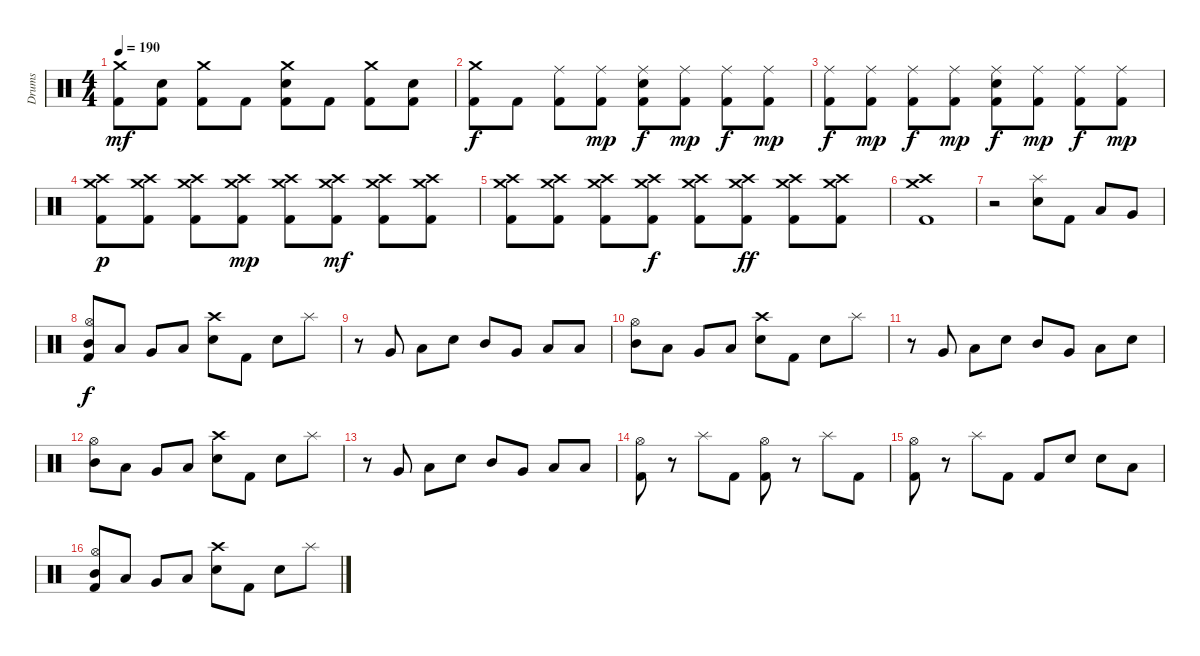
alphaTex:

\track ("Drums" "Drums") {instrument percussion}
\staff {score}
\articulation defaults
\ts (4 4)
\tempo 190
\clef neutral
\ks c
("Crash medium (hit)" "Kick (hit) 2").8{dy mf} ("Electric Snare (hit)" "Kick (hit) 2").8 ("Crash medium (hit)" "Kick (hit) 2").8 "Kick (hit) 2".8 ("Crash medium (hit)" "Electric Snare (hit)" "Kick (hit) 2").8 "Kick (hit) 2".8 ("Crash medium (hit)" "Kick (hit) 2").8 ("Electric Snare (hit)" "Kick (hit) 2").8 |
("Crash medium (hit)" "Kick (hit) 2").8{dy f} "Kick (hit) 2".8 ("Ride (middle)" "Kick (hit) 2").8 ("Ride (middle)" "Kick (hit) 2").8{dy mp} ("Ride (middle)" "Electric Snare (hit)" "Kick (hit) 2").8{dy f} ("Ride (middle)" "Kick (hit) 2").8{dy mp} ("Ride (middle)" "Kick (hit) 2").8{dy f} ("Ride (middle)" "Kick (hit) 2").8{dy mp} |
("Ride (middle)" "Kick (hit) 2").8{dy f} ("Ride (middle)" "Kick (hit) 2").8{dy mp} ("Ride (middle)" "Kick (hit) 2").8{dy f} ("Ride (middle)" "Kick (hit) 2").8{dy mp} ("Ride (middle)" "Electric Snare (hit)" "Kick (hit) 2").8{dy f} ("Ride (middle)" "Kick (hit) 2").8{dy mp} ("Ride (middle)" "Kick (hit) 2").8{dy f} ("Ride (middle)" "Kick (hit) 2").8{dy mp} |
("Crash medium (hit)" "Crash high (hit)" "Kick (hit) 2").8{dy p} ("Crash medium (hit)" "Crash high (hit)" "Kick (hit) 2").8 ("Crash medium (hit)" "Crash high (hit)" "Kick (hit) 2").8 ("Crash medium (hit)" "Crash high (hit)" "Kick (hit) 2").8{dy mp} ("Crash medium (hit)" "Crash high (hit)" "Kick (hit) 2").8 ("Crash medium (hit)" "Crash high (hit)" "Kick (hit) 2").8{dy mf} ("Crash medium (hit)" "Crash high (hit)" "Kick (hit) 2").8 ("Crash medium (hit)" "Crash high (hit)" "Kick (hit) 2").8 |
("Crash medium (hit)" "Crash high (hit)" "Kick (hit) 2").8 ("Crash medium (hit)" "Crash high (hit)" "Kick (hit) 2").8 ("Crash medium (hit)" "Crash high (hit)" "Kick (hit) 2").8 ("Crash medium (hit)" "Crash high (hit)" "Kick (hit) 2").8{dy f} ("Crash medium (hit)" "Crash high (hit)" "Kick (hit) 2").8 ("Crash medium (hit)" "Crash high (hit)" "Kick (hit) 2").8{dy ff} ("Crash medium (hit)" "Crash high (hit)" "Kick (hit) 2").8 ("Crash medium (hit)" "Crash high (hit)" "Kick (hit) 2").8 |
("Crash medium (hit)" "Crash high (hit)" "Kick (hit) 2").1 |
r.2 ("Splash (hit)" "Electric Snare (hit)").8 "Kick (hit) 2".8 "Low Tom (hit)".8 "Very Low Tom (hit)".8 |
("Hi-Hat (open)" "Mid Tom (hit)" "Kick (hit) 2").8{dy f} "Low Tom (hit)".8 "Very Low Tom (hit)".8 "Low Floor Tom (hit)".8 ("Crash high (hit)" "Electric Snare (hit)").8 "Kick (hit) 2".8 "Electric Snare (hit)".8 "Splash (hit)".8 |
r.8 "Very Low Tom (hit)".8 "Low Floor Tom (hit)".8 "Electric Snare (hit)".8 "Mid Tom (hit)".8 "Very Low Tom (hit)".8 "Low Tom (hit)".8 "Low Floor Tom (hit)".8 |
("Hi-Hat (open)" "Mid Tom (hit)").8 "Low Tom (hit)".8 "Very Low Tom (hit)".8 "Low Floor Tom (hit)".8 ("Crash high (hit)" "Electric Snare (hit)").8 "Kick (hit) 2".8 "Electric Snare (hit)".8 "Splash (hit)".8 |
r.8 "Very Low Tom (hit)".8 "Low Floor Tom (hit)".8 "Electric Snare (hit)".8 "Mid Tom (hit)".8 "Very Low Tom (hit)".8 "Low Tom (hit)".8 "Electric Snare (hit)".8 |
("Hi-Hat (open)" "Mid Tom (hit)").8 "Low Tom (hit)".8 "Very Low Tom (hit)".8 "Low Floor Tom (hit)".8 ("Crash high (hit)" "Electric Snare (hit)").8 "Kick (hit) 2".8 "Electric Snare (hit)".8 "Splash (hit)".8 |
r.8 "Very Low Tom (hit)".8 "Low Floor Tom (hit)".8 "Electric Snare (hit)".8 "Mid Tom (hit)".8 "Very Low Tom (hit)".8 "Low Tom (hit)".8 "Low Floor Tom (hit)".8 |
("Hi-Hat (open)" "Kick (hit) 2").8 r.8 "Splash (hit)".8 "Kick (hit) 2".8 ("Hi-Hat (open)" "Kick (hit) 2").8 r.8 "Splash (hit)".8 "Kick (hit) 2".8 |
("Hi-Hat (open)" "Kick (hit) 2").8 r.8 "Splash (hit)".8 "Kick (hit) 2".8 "Kick (hit) 2".8 "Electric Snare (hit)".8 "Electric Snare (hit)".8 "Low Tom (hit)".8 |
("Hi-Hat (open)" "Mid Tom (hit)" "Kick (hit) 2").8 "Low Tom (hit)".8 "Very Low Tom (hit)".8 "Low Floor Tom (hit)".8 ("Crash high (hit)" "Electric Snare (hit)").8 "Kick (hit) 2".8 "Electric Snare (hit)".8 "Splash (hit)".8
